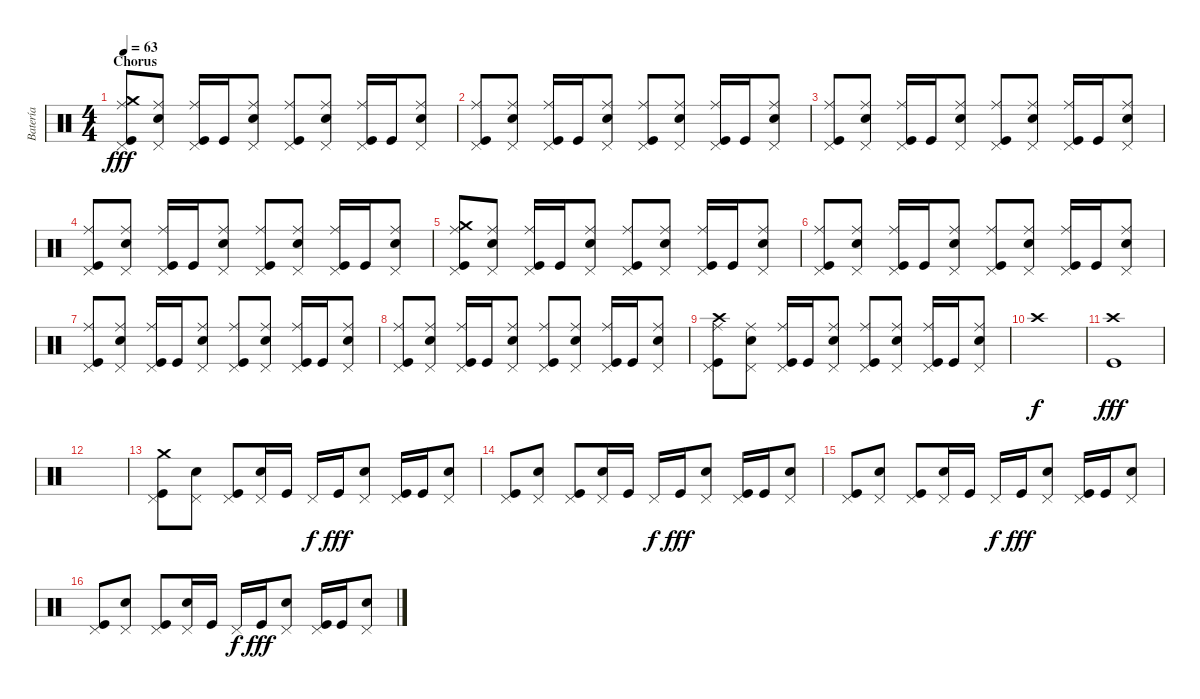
\track ("Batería" "Batería") {instrument percussion}
\staff {score}
\articulation defaults
\ts (4 4)
\section ("" "Chorus")
\tempo 63
\clef neutral
\ks c
("Pedal Hi-Hat (hit)" "Kick (hit)" "Crash medium (hit)" "Ride (middle)").8{dy fff} ("Pedal Hi-Hat (hit)" "Electric Snare (hit)" "Ride (middle)").8 ("Pedal Hi-Hat (hit)" "Kick (hit)" "Ride (middle)").16 "Kick (hit)".16 ("Pedal Hi-Hat (hit)" "Electric Snare (hit)" "Ride (middle)").8 ("Pedal Hi-Hat (hit)" "Kick (hit)" "Ride (middle)").8 ("Pedal Hi-Hat (hit)" "Electric Snare (hit)" "Ride (middle)").8 ("Pedal Hi-Hat (hit)" "Kick (hit)" "Ride (middle)").16 "Kick (hit)".16 ("Pedal Hi-Hat (hit)" "Electric Snare (hit)" "Ride (middle)").8 |
("Pedal Hi-Hat (hit)" "Kick (hit)" "Ride (middle)").8 ("Pedal Hi-Hat (hit)" "Electric Snare (hit)" "Ride (middle)").8 ("Pedal Hi-Hat (hit)" "Kick (hit)" "Ride (middle)").16 "Kick (hit)".16 ("Pedal Hi-Hat (hit)" "Electric Snare (hit)" "Ride (middle)").8 ("Pedal Hi-Hat (hit)" "Kick (hit)" "Ride (middle)").8 ("Pedal Hi-Hat (hit)" "Electric Snare (hit)" "Ride (middle)").8 ("Pedal Hi-Hat (hit)" "Kick (hit)" "Ride (middle)").16 "Kick (hit)".16 ("Pedal Hi-Hat (hit)" "Electric Snare (hit)" "Ride (middle)").8 |
("Pedal Hi-Hat (hit)" "Kick (hit)" "Ride (middle)").8 ("Pedal Hi-Hat (hit)" "Electric Snare (hit)" "Ride (middle)").8 ("Pedal Hi-Hat (hit)" "Kick (hit)" "Ride (middle)").16 "Kick (hit)".16 ("Pedal Hi-Hat (hit)" "Electric Snare (hit)" "Ride (middle)").8 ("Pedal Hi-Hat (hit)" "Kick (hit)" "Ride (middle)").8 ("Pedal Hi-Hat (hit)" "Electric Snare (hit)" "Ride (middle)").8 ("Pedal Hi-Hat (hit)" "Kick (hit)" "Ride (middle)").16 "Kick (hit)".16 ("Pedal Hi-Hat (hit)" "Electric Snare (hit)" "Ride (middle)").8 |
("Pedal Hi-Hat (hit)" "Kick (hit)" "Ride (middle)").8 ("Pedal Hi-Hat (hit)" "Electric Snare (hit)" "Ride (middle)").8 ("Pedal Hi-Hat (hit)" "Kick (hit)" "Ride (middle)").16 "Kick (hit)".16 ("Pedal Hi-Hat (hit)" "Electric Snare (hit)" "Ride (middle)").8 ("Pedal Hi-Hat (hit)" "Kick (hit)" "Ride (middle)").8 ("Pedal Hi-Hat (hit)" "Electric Snare (hit)" "Ride (middle)").8 ("Pedal Hi-Hat (hit)" "Kick (hit)" "Ride (middle)").16 "Kick (hit)".16 ("Pedal Hi-Hat (hit)" "Electric Snare (hit)" "Ride (middle)").8 |
("Pedal Hi-Hat (hit)" "Kick (hit)" "Crash medium (hit)" "Ride (middle)").8 ("Pedal Hi-Hat (hit)" "Electric Snare (hit)" "Ride (middle)").8 ("Pedal Hi-Hat (hit)" "Kick (hit)" "Ride (middle)").16 "Kick (hit)".16 ("Pedal Hi-Hat (hit)" "Electric Snare (hit)" "Ride (middle)").8 ("Pedal Hi-Hat (hit)" "Kick (hit)" "Ride (middle)").8 ("Pedal Hi-Hat (hit)" "Electric Snare (hit)" "Ride (middle)").8 ("Pedal Hi-Hat (hit)" "Kick (hit)" "Ride (middle)").16 "Kick (hit)".16 ("Pedal Hi-Hat (hit)" "Electric Snare (hit)" "Ride (middle)").8 |
("Pedal Hi-Hat (hit)" "Kick (hit)" "Ride (middle)").8 ("Pedal Hi-Hat (hit)" "Electric Snare (hit)" "Ride (middle)").8 ("Pedal Hi-Hat (hit)" "Kick (hit)" "Ride (middle)").16 "Kick (hit)".16 ("Pedal Hi-Hat (hit)" "Electric Snare (hit)" "Ride (middle)").8 ("Pedal Hi-Hat (hit)" "Kick (hit)" "Ride (middle)").8 ("Pedal Hi-Hat (hit)" "Electric Snare (hit)" "Ride (middle)").8 ("Pedal Hi-Hat (hit)" "Kick (hit)" "Ride (middle)").16 "Kick (hit)".16 ("Pedal Hi-Hat (hit)" "Electric Snare (hit)" "Ride (middle)").8 |
("Pedal Hi-Hat (hit)" "Kick (hit)" "Ride (middle)").8 ("Pedal Hi-Hat (hit)" "Electric Snare (hit)" "Ride (middle)").8 ("Pedal Hi-Hat (hit)" "Kick (hit)" "Ride (middle)").16 "Kick (hit)".16 ("Pedal Hi-Hat (hit)" "Electric Snare (hit)" "Ride (middle)").8 ("Pedal Hi-Hat (hit)" "Kick (hit)" "Ride (middle)").8 ("Pedal Hi-Hat (hit)" "Electric Snare (hit)" "Ride (middle)").8 ("Pedal Hi-Hat (hit)" "Kick (hit)" "Ride (middle)").16 "Kick (hit)".16 ("Pedal Hi-Hat (hit)" "Electric Snare (hit)" "Ride (middle)").8 |
("Pedal Hi-Hat (hit)" "Kick (hit)" "Ride (middle)").8 ("Pedal Hi-Hat (hit)" "Electric Snare (hit)" "Ride (middle)").8 ("Pedal Hi-Hat (hit)" "Kick (hit)" "Ride (middle)").16 "Kick (hit)".16 ("Pedal Hi-Hat (hit)" "Electric Snare (hit)" "Ride (middle)").8 ("Pedal Hi-Hat (hit)" "Kick (hit)" "Ride (middle)").8 ("Pedal Hi-Hat (hit)" "Electric Snare (hit)" "Ride (middle)").8 ("Pedal Hi-Hat (hit)" "Kick (hit)" "Ride (middle)").16 "Kick (hit)".16 ("Pedal Hi-Hat (hit)" "Electric Snare (hit)" "Ride (middle)").8 |
("Pedal Hi-Hat (hit)" "Kick (hit)" "Crash high (hit)" "Ride (middle)").8 ("Pedal Hi-Hat (hit)" "Electric Snare (hit)" "Ride (middle)").8 ("Pedal Hi-Hat (hit)" "Kick (hit)" "Ride (middle)").16 "Kick (hit)".16 ("Pedal Hi-Hat (hit)" "Electric Snare (hit)" "Ride (middle)").8 ("Pedal Hi-Hat (hit)" "Kick (hit)" "Ride (middle)").8 ("Pedal Hi-Hat (hit)" "Electric Snare (hit)" "Ride (middle)").8 ("Pedal Hi-Hat (hit)" "Kick (hit)" "Ride (middle)").16 "Kick (hit)".16 ("Pedal Hi-Hat (hit)" "Electric Snare (hit)" "Ride (middle)").8 |
"Crash high (hit)".1{dy f} |
("Kick (hit)" "Crash high (hit)").1{dy fff} |
|
("Pedal Hi-Hat (hit)" "Kick (hit)" "Crash medium (hit)").8 ("Pedal Hi-Hat (hit)" "Electric Snare (hit)").8 ("Pedal Hi-Hat (hit)" "Kick (hit)").8 ("Pedal Hi-Hat (hit)" "Electric Snare (hit)").16 "Kick (hit)".16 "Pedal Hi-Hat (hit)".16{dy f} "Kick (hit)".16{dy fff} ("Pedal Hi-Hat (hit)" "Electric Snare (hit)").8 ("Pedal Hi-Hat (hit)" "Kick (hit)").16 "Kick (hit)".16 ("Pedal Hi-Hat (hit)" "Electric Snare (hit)").8 |
("Pedal Hi-Hat (hit)" "Kick (hit)").8 ("Pedal Hi-Hat (hit)" "Electric Snare (hit)").8 ("Pedal Hi-Hat (hit)" "Kick (hit)").8 ("Pedal Hi-Hat (hit)" "Electric Snare (hit)").16 "Kick (hit)".16 "Pedal Hi-Hat (hit)".16{dy f} "Kick (hit)".16{dy fff} ("Pedal Hi-Hat (hit)" "Electric Snare (hit)").8 ("Pedal Hi-Hat (hit)" "Kick (hit)").16 "Kick (hit)".16 ("Pedal Hi-Hat (hit)" "Electric Snare (hit)").8 |
("Pedal Hi-Hat (hit)" "Kick (hit)").8 ("Pedal Hi-Hat (hit)" "Electric Snare (hit)").8 ("Pedal Hi-Hat (hit)" "Kick (hit)").8 ("Pedal Hi-Hat (hit)" "Electric Snare (hit)").16 "Kick (hit)".16 "Pedal Hi-Hat (hit)".16{dy f} "Kick (hit)".16{dy fff} ("Pedal Hi-Hat (hit)" "Electric Snare (hit)").8 ("Pedal Hi-Hat (hit)" "Kick (hit)").16 "Kick (hit)".16 ("Pedal Hi-Hat (hit)" "Electric Snare (hit)").8 |
("Pedal Hi-Hat (hit)" "Kick (hit)").8 ("Pedal Hi-Hat (hit)" "Electric Snare (hit)").8 ("Pedal Hi-Hat (hit)" "Kick (hit)").8 ("Pedal Hi-Hat (hit)" "Electric Snare (hit)").16 "Kick (hit)".16 "Pedal Hi-Hat (hit)".16{dy f} "Kick (hit)".16{dy fff} ("Pedal Hi-Hat (hit)" "Electric Snare (hit)").8 ("Pedal Hi-Hat (hit)" "Kick (hit)").16 "Kick (hit)".16 ("Pedal Hi-Hat (hit)" "Electric Snare (hit)").8
